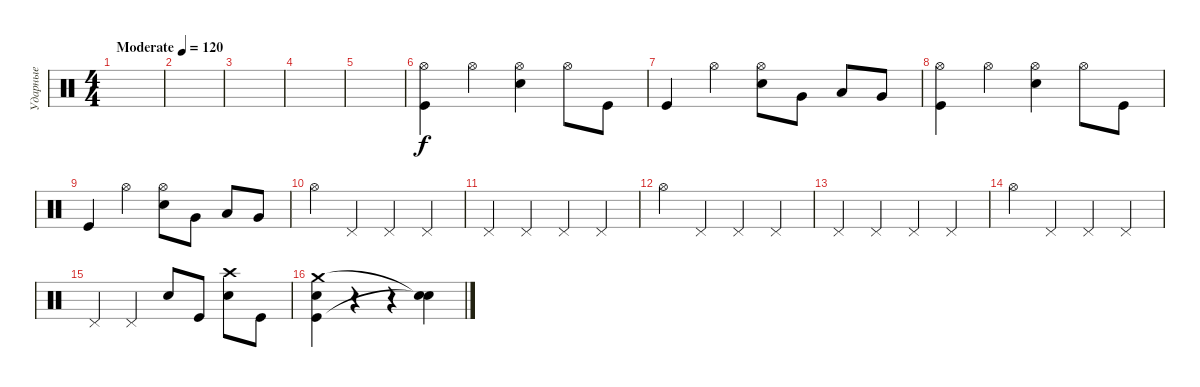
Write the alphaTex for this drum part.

\track ("Ударные" "Ударные") {instrument percussion}
\staff {score}
\articulation defaults
\ts (4 4)
\tempo (120 "Moderate")
\clef neutral
\ks c
|
|
|
|
|
("Hi-Hat (open)" "Kick (hit)").4 "Hi-Hat (open)".4 ("Hi-Hat (open)" "Electric Snare (hit)").4 "Hi-Hat (open)".8 "Kick (hit)".8 |
"Kick (hit)".4 "Hi-Hat (open)".4 ("Hi-Hat (open)" "Electric Snare (hit)").8 "Very Low Tom (hit)".8 "Low Floor Tom (hit)".8 "Very Low Tom (hit)".8 |
("Hi-Hat (open)" "Kick (hit)").4 "Hi-Hat (open)".4 ("Hi-Hat (open)" "Electric Snare (hit)").4 "Hi-Hat (open)".8 "Kick (hit)".8 |
"Kick (hit)".4 "Hi-Hat (open)".4 ("Hi-Hat (open)" "Electric Snare (hit)").8 "Very Low Tom (hit)".8 "Low Floor Tom (hit)".8 "Very Low Tom (hit)".8 |
"Hi-Hat (open)".4 "Pedal Hi-Hat (hit)".4 "Pedal Hi-Hat (hit)".4 "Pedal Hi-Hat (hit)".4 |
"Pedal Hi-Hat (hit)".4 "Pedal Hi-Hat (hit)".4 "Pedal Hi-Hat (hit)".4 "Pedal Hi-Hat (hit)".4 |
"Hi-Hat (open)".4 "Pedal Hi-Hat (hit)".4 "Pedal Hi-Hat (hit)".4 "Pedal Hi-Hat (hit)".4 |
"Pedal Hi-Hat (hit)".4 "Pedal Hi-Hat (hit)".4 "Pedal Hi-Hat (hit)".4 "Pedal Hi-Hat (hit)".4 |
"Hi-Hat (open)".4 "Pedal Hi-Hat (hit)".4 "Pedal Hi-Hat (hit)".4 "Pedal Hi-Hat (hit)".4 |
"Pedal Hi-Hat (hit)".4 "Pedal Hi-Hat (hit)".4 "Electric Snare (hit)".8 "Kick (hit)".8 ("Electric Snare (hit)" "Crash high (hit)").8 "Kick (hit)".8 |
("Kick (hit)" "Crash medium (hit)" "Electric Snare (hit)").4 r.4 r.4 ("Snare (hit)"{t} "Snare (hit)"{t}).4
